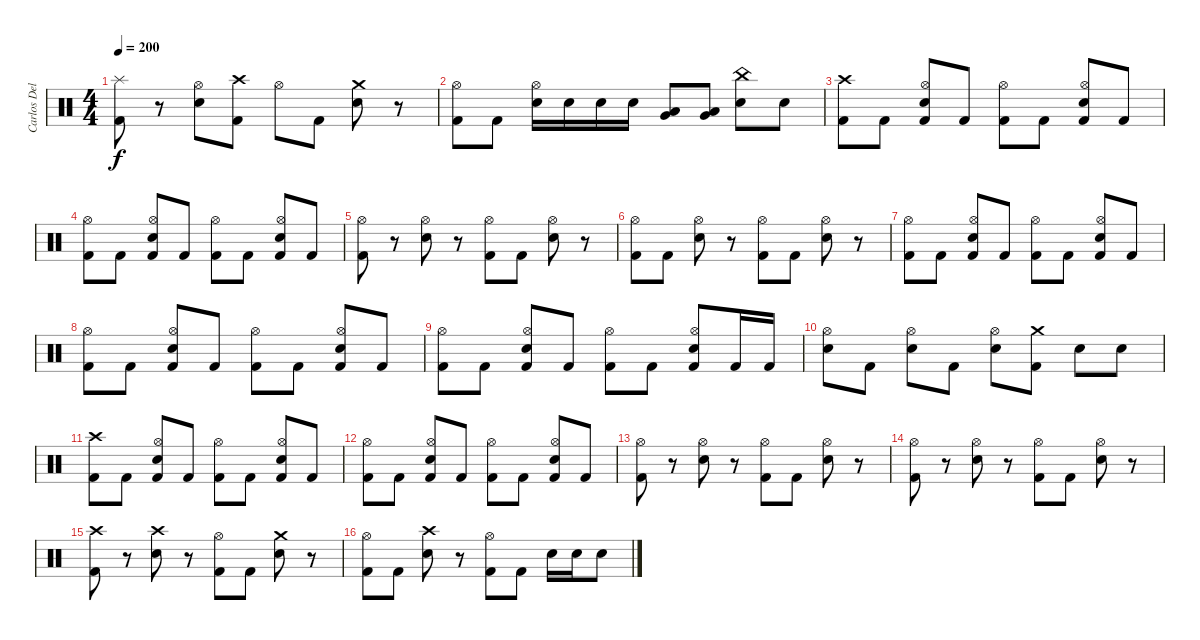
\track ("Carlos Delgado" "Carlos Del") {instrument percussion}
\staff {score}
\articulation defaults
\ts (4 4)
\tempo 200
\clef neutral
\ks c
("Kick (hit) 2" "Splash (hit)").8{dy f} r.8 ("Hi-Hat (open)" "Electric Snare (hit)").8 ("Kick (hit) 2" "Crash high (hit)").8 "Hi-Hat (open)".8 "Kick (hit) 2".8 ("Crash medium (hit)" "Electric Snare (hit)").8 r.8 |
("Hi-Hat (open)" "Kick (hit) 2").8 "Kick (hit) 2".8 ("Hi-Hat (open)" "Electric Snare (hit)").16 "Electric Snare (hit)".16 "Electric Snare (hit)".16 "Electric Snare (hit)".16 ("Low Floor Tom (hit)" "Very Low Tom (hit)").8 ("Very Low Tom (hit)" "Low Floor Tom (hit)").8 ("Electric Snare (hit)" "China (hit)").8 "Electric Snare (hit)".8 |
("Crash high (hit)" "Kick (hit) 2").8 "Kick (hit) 2".8 ("Kick (hit) 2" "Electric Snare (hit)" "Hi-Hat (open)").8 "Kick (hit) 2".8 ("Kick (hit) 2" "Hi-Hat (open)").8 "Kick (hit) 2".8 ("Kick (hit) 2" "Electric Snare (hit)" "Hi-Hat (open)").8 "Kick (hit) 2".8 |
("Kick (hit) 2" "Hi-Hat (open)").8 "Kick (hit) 2".8 ("Kick (hit) 2" "Electric Snare (hit)" "Hi-Hat (open)").8 "Kick (hit) 2".8 ("Hi-Hat (open)" "Kick (hit) 2").8 "Kick (hit) 2".8 ("Kick (hit) 2" "Hi-Hat (open)" "Electric Snare (hit)").8 "Kick (hit) 2".8 |
("Kick (hit) 2" "Hi-Hat (open)").8 r.8 ("Electric Snare (hit)" "Hi-Hat (open)").8 r.8 ("Kick (hit) 2" "Hi-Hat (open)").8 "Kick (hit) 2".8 ("Electric Snare (hit)" "Hi-Hat (open)").8 r.8 |
("Kick (hit) 2" "Hi-Hat (open)").8 "Kick (hit) 2".8 ("Hi-Hat (open)" "Electric Snare (hit)").8 r.8 ("Hi-Hat (open)" "Kick (hit) 2").8 "Kick (hit) 2".8 ("Hi-Hat (open)" "Electric Snare (hit)").8 r.8 |
("Kick (hit) 2" "Hi-Hat (open)").8 "Kick (hit) 2".8 ("Kick (hit) 2" "Electric Snare (hit)" "Hi-Hat (open)").8 "Kick (hit) 2".8 ("Hi-Hat (open)" "Kick (hit) 2").8 "Kick (hit) 2".8 ("Kick (hit) 2" "Hi-Hat (open)" "Electric Snare (hit)").8 "Kick (hit) 2".8 |
("Kick (hit) 2" "Hi-Hat (open)").8 "Kick (hit) 2".8 ("Kick (hit) 2" "Electric Snare (hit)" "Hi-Hat (open)").8 "Kick (hit) 2".8 ("Kick (hit) 2" "Hi-Hat (open)").8 "Kick (hit) 2".8 ("Kick (hit) 2" "Electric Snare (hit)" "Hi-Hat (open)").8 "Kick (hit) 2".8 |
("Kick (hit) 2" "Hi-Hat (open)").8 "Kick (hit) 2".8 ("Kick (hit) 2" "Electric Snare (hit)" "Hi-Hat (open)").8 "Kick (hit) 2".8 ("Hi-Hat (open)" "Kick (hit) 2").8 "Kick (hit) 2".8 ("Kick (hit) 2" "Hi-Hat (open)" "Electric Snare (hit)").8 "Kick (hit) 2".16 "Kick (hit) 2".16 |
("Hi-Hat (open)" "Electric Snare (hit)").8 "Kick (hit) 2".8 ("Hi-Hat (open)" "Electric Snare (hit)").8 "Kick (hit) 2".8 ("Hi-Hat (open)" "Electric Snare (hit)").8 ("Kick (hit) 2" "Crash medium (hit)").8 "Electric Snare (hit)".8 "Electric Snare (hit)".8 |
("Kick (hit) 2" "Crash high (hit)").8 "Kick (hit) 2".8 ("Kick (hit) 2" "Electric Snare (hit)" "Hi-Hat (open)").8 "Kick (hit) 2".8 ("Kick (hit) 2" "Hi-Hat (open)").8 "Kick (hit) 2".8 ("Kick (hit) 2" "Electric Snare (hit)" "Hi-Hat (open)").8 "Kick (hit) 2".8 |
("Kick (hit) 2" "Hi-Hat (open)").8 "Kick (hit) 2".8 ("Kick (hit) 2" "Electric Snare (hit)" "Hi-Hat (open)").8 "Kick (hit) 2".8 ("Kick (hit) 2" "Hi-Hat (open)").8 "Kick (hit) 2".8 ("Kick (hit) 2" "Hi-Hat (open)" "Electric Snare (hit)").8 "Kick (hit) 2".8 |
("Kick (hit) 2" "Hi-Hat (open)").8 r.8 ("Electric Snare (hit)" "Hi-Hat (open)").8 r.8 ("Kick (hit) 2" "Hi-Hat (open)").8 "Kick (hit) 2".8 ("Electric Snare (hit)" "Hi-Hat (open)").8 r.8 |
("Kick (hit) 2" "Hi-Hat (open)").8 r.8 ("Hi-Hat (open)" "Electric Snare (hit)").8 r.8 ("Hi-Hat (open)" "Kick (hit) 2").8 "Kick (hit) 2".8 ("Hi-Hat (open)" "Electric Snare (hit)").8 r.8 |
("Kick (hit) 2" "Crash high (hit)").8 r.8 ("Electric Snare (hit)" "Crash high (hit)").8 r.8 ("Hi-Hat (open)" "Kick (hit) 2").8 "Kick (hit) 2".8 ("Crash medium (hit)" "Electric Snare (hit)").8 r.8 |
("Kick (hit) 2" "Hi-Hat (open)").8 "Kick (hit) 2".8 ("Electric Snare (hit)" "Crash high (hit)").8 r.8 ("Kick (hit) 2" "Hi-Hat (open)").8 "Kick (hit) 2".8 "Electric Snare (hit)".16 "Electric Snare (hit)".16 "Electric Snare (hit)".8
